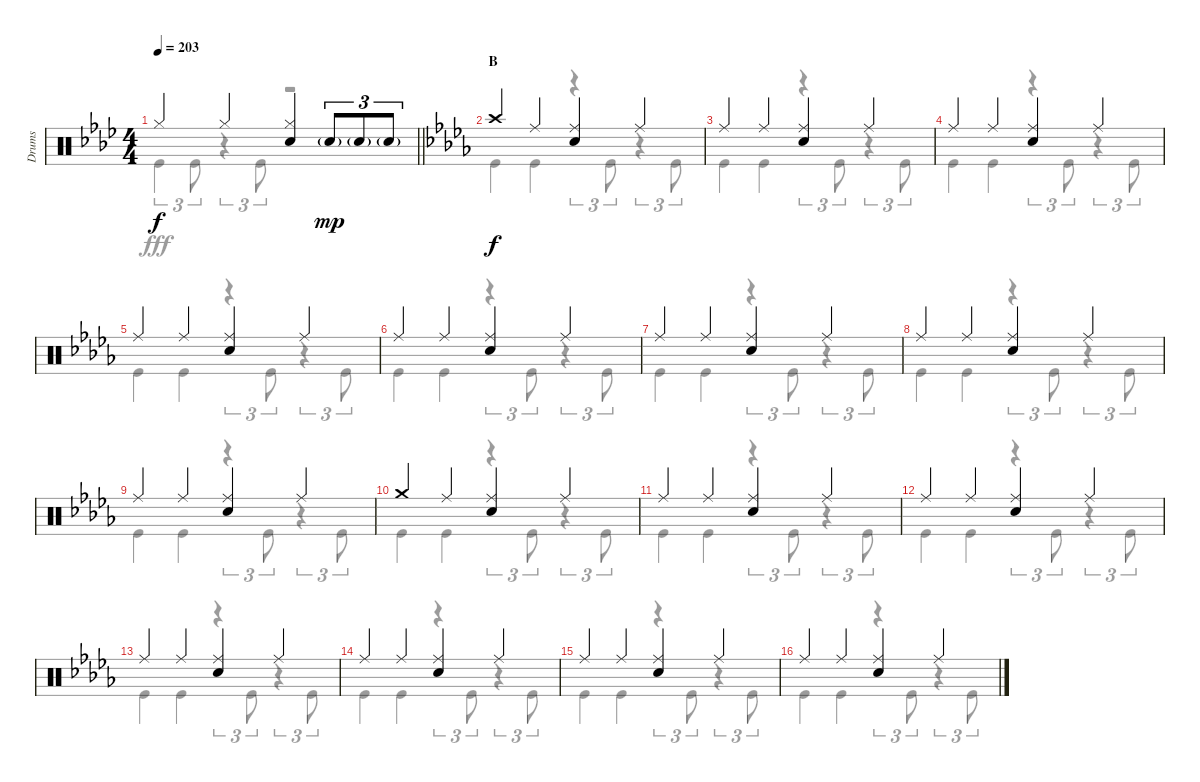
\track ("Drums" "Drums") {instrument percussion}
\staff {score}
\articulation defaults
\voice
\ts (4 4)
\tempo 203
\clef neutral
\barLineRight lightlight
\ks ab "Hi-Hat (closed)".4{dy f} "Hi-Hat (closed)".4
("Hi-Hat (closed)" "Snare (hit) 2").4 "Snare (hit) 2"{g}.8{tu (3 2) dy mp} "Snare (hit) 2"{g}.8{tu (3 2)} "Snare (hit) 2"{g}.8{tu (3 2)} |
\section ("" "B")
\ks db "Crash high (hit)".4{dy f} "Ride (middle)".4
("Ride (middle)" "Snare (hit) 2").4 "Ride (middle)".4 |
"Ride (middle)".4 "Ride (middle)".4 ("Ride (middle)" "Snare (hit) 2").4 "Ride (middle)".4 |
"Ride (middle)".4 "Ride (middle)".4 ("Ride (middle)" "Snare (hit) 2").4 "Ride (middle)".4 |
"Ride (middle)".4 "Ride (middle)".4 ("Ride (middle)" "Snare (hit) 2").4 "Ride (middle)".4 |
"Ride (middle)".4 "Ride (middle)".4 ("Ride (middle)" "Snare (hit) 2").4 "Ride (middle)".4 |
"Ride (middle)".4 "Ride (middle)".4 ("Ride (middle)" "Snare (hit) 2").4 "Ride (middle)".4 |
"Ride (middle)".4 "Ride (middle)".4 ("Ride (middle)" "Snare (hit) 2").4 "Ride (middle)".4 |
"Ride (middle)".4 "Ride (middle)".4 ("Ride (middle)" "Snare (hit) 2").4 "Ride (middle)".4 |
"Crash medium (hit)".4 "Ride (middle)".4 ("Ride (middle)" "Snare (hit) 2").4 "Ride (middle)".4 |
"Ride (middle)".4 "Ride (middle)".4 ("Ride (middle)" "Snare (hit) 2").4 "Ride (middle)".4 |
"Ride (middle)".4 "Ride (middle)".4 ("Ride (middle)" "Snare (hit) 2").4 "Ride (middle)".4 |
"Ride (middle)".4 "Ride (middle)".4 ("Ride (middle)" "Snare (hit) 2").4 "Ride (middle)".4 |
"Ride (middle)".4 "Ride (middle)".4 ("Ride (middle)" "Snare (hit) 2").4 "Ride (middle)".4 |
"Ride (middle)".4 "Ride (middle)".4 ("Ride (middle)" "Snare (hit) 2").4 "Ride (middle)".4 |
"Ride (middle)".4 "Ride (middle)".4 ("Ride (middle)" "Snare (hit) 2").4 "Ride (middle)".4
\voice
\clef neutral
\ottava regular
\simile none
\barLineRight lightlight
\ks ab "Kick (hit)".4{tu (3 2) dy fff} "Kick (hit)".8{tu (3 2)}
r.4{tu (3 2)} "Kick (hit)".8{tu (3 2)} r.2 |
\ks db "Kick (hit)".4 "Kick (hit)".4
r.4{tu (3 2)} "Kick (hit)".8{tu (3 2)} r.4{tu (3 2)} "Kick (hit)".8{tu (3 2)} |
"Kick (hit)".4 "Kick (hit)".4 r.4{tu (3 2)} "Kick (hit)".8{tu (3 2)} r.4{tu (3 2)} "Kick (hit)".8{tu (3 2)} |
"Kick (hit)".4 "Kick (hit)".4 r.4{tu (3 2)} "Kick (hit)".8{tu (3 2)} r.4{tu (3 2)} "Kick (hit)".8{tu (3 2)} |
"Kick (hit)".4 "Kick (hit)".4 r.4{tu (3 2)} "Kick (hit)".8{tu (3 2)} r.4{tu (3 2)} "Kick (hit)".8{tu (3 2)} |
"Kick (hit)".4 "Kick (hit)".4 r.4{tu (3 2)} "Kick (hit)".8{tu (3 2)} r.4{tu (3 2)} "Kick (hit)".8{tu (3 2)} |
"Kick (hit)".4 "Kick (hit)".4 r.4{tu (3 2)} "Kick (hit)".8{tu (3 2)} r.4{tu (3 2)} "Kick (hit)".8{tu (3 2)} |
"Kick (hit)".4 "Kick (hit)".4 r.4{tu (3 2)} "Kick (hit)".8{tu (3 2)} r.4{tu (3 2)} "Kick (hit)".8{tu (3 2)} |
"Kick (hit)".4 "Kick (hit)".4 r.4{tu (3 2)} "Kick (hit)".8{tu (3 2)} r.4{tu (3 2)} "Kick (hit)".8{tu (3 2)} |
"Kick (hit)".4 "Kick (hit)".4 r.4{tu (3 2)} "Kick (hit)".8{tu (3 2)} r.4{tu (3 2)} "Kick (hit)".8{tu (3 2)} |
"Kick (hit)".4 "Kick (hit)".4 r.4{tu (3 2)} "Kick (hit)".8{tu (3 2)} r.4{tu (3 2)} "Kick (hit)".8{tu (3 2)} |
"Kick (hit)".4 "Kick (hit)".4 r.4{tu (3 2)} "Kick (hit)".8{tu (3 2)} r.4{tu (3 2)} "Kick (hit)".8{tu (3 2)} |
"Kick (hit)".4 "Kick (hit)".4 r.4{tu (3 2)} "Kick (hit)".8{tu (3 2)} r.4{tu (3 2)} "Kick (hit)".8{tu (3 2)} |
"Kick (hit)".4 "Kick (hit)".4 r.4{tu (3 2)} "Kick (hit)".8{tu (3 2)} r.4{tu (3 2)} "Kick (hit)".8{tu (3 2)} |
"Kick (hit)".4 "Kick (hit)".4 r.4{tu (3 2)} "Kick (hit)".8{tu (3 2)} r.4{tu (3 2)} "Kick (hit)".8{tu (3 2)} |
"Kick (hit)".4 "Kick (hit)".4 r.4{tu (3 2)} "Kick (hit)".8{tu (3 2)} r.4{tu (3 2)} "Kick (hit)".8{tu (3 2)}
